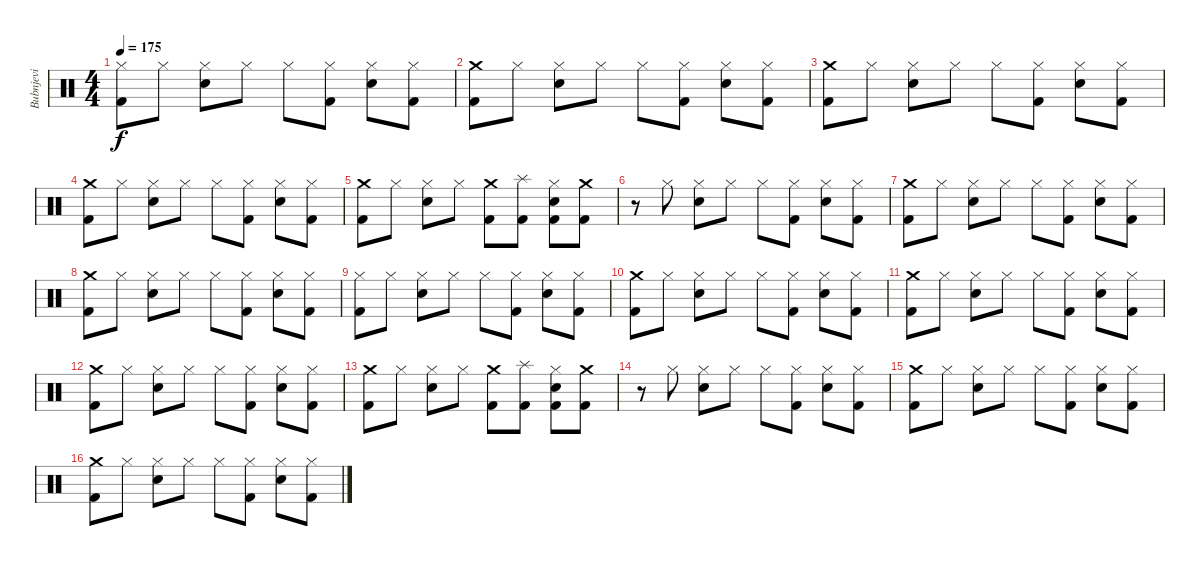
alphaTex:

\track ("Bubnjevi" "Bubnjevi") {instrument percussion}
\staff {score}
\articulation defaults
\ts (4 4)
\tempo 175
\clef neutral
\ks c
("Hi-Hat (closed)" "Kick (hit) 2").8{dy f} "Hi-Hat (closed)".8 ("Electric Snare (hit)" "Hi-Hat (closed)").8 "Hi-Hat (closed)".8 "Hi-Hat (closed)".8 ("Hi-Hat (closed)" "Kick (hit) 2").8 ("Electric Snare (hit)" "Hi-Hat (closed)").8 ("Hi-Hat (closed)" "Kick (hit) 2").8 |
("Crash medium (hit)" "Kick (hit) 2").8 "Hi-Hat (closed)".8 ("Electric Snare (hit)" "Hi-Hat (closed)").8 "Hi-Hat (closed)".8 "Hi-Hat (closed)".8 ("Hi-Hat (closed)" "Kick (hit) 2").8 ("Electric Snare (hit)" "Hi-Hat (closed)").8 ("Hi-Hat (closed)" "Kick (hit) 2").8 |
("Crash medium (hit)" "Kick (hit) 2").8 "Hi-Hat (closed)".8 ("Electric Snare (hit)" "Hi-Hat (closed)").8 "Hi-Hat (closed)".8 "Hi-Hat (closed)".8 ("Hi-Hat (closed)" "Kick (hit) 2").8 ("Electric Snare (hit)" "Hi-Hat (closed)").8 ("Hi-Hat (closed)" "Kick (hit) 2").8 |
("Crash medium (hit)" "Kick (hit) 2").8 "Hi-Hat (closed)".8 ("Electric Snare (hit)" "Hi-Hat (closed)").8 "Hi-Hat (closed)".8 "Hi-Hat (closed)".8 ("Hi-Hat (closed)" "Kick (hit) 2").8 ("Electric Snare (hit)" "Hi-Hat (closed)").8 ("Hi-Hat (closed)" "Kick (hit) 2").8 |
("Crash medium (hit)" "Kick (hit) 2").8 "Hi-Hat (closed)".8 ("Electric Snare (hit)" "Hi-Hat (closed)").8 "Hi-Hat (closed)".8 ("Crash medium (hit)" "Kick (hit) 2").8 ("Splash (hit)" "Kick (hit) 2").8 ("Electric Snare (hit)" "Hi-Hat (closed)" "Kick (hit) 2").8 ("Crash medium (hit)" "Kick (hit) 2").8 |
r.8 "Hi-Hat (closed)".8 ("Electric Snare (hit)" "Hi-Hat (closed)").8 "Hi-Hat (closed)".8 "Hi-Hat (closed)".8 ("Hi-Hat (closed)" "Kick (hit) 2").8 ("Electric Snare (hit)" "Hi-Hat (closed)").8 ("Hi-Hat (closed)" "Kick (hit) 2").8 |
("Crash medium (hit)" "Kick (hit) 2").8 "Hi-Hat (closed)".8 ("Electric Snare (hit)" "Hi-Hat (closed)").8 "Hi-Hat (closed)".8 "Hi-Hat (closed)".8 ("Hi-Hat (closed)" "Kick (hit) 2").8 ("Electric Snare (hit)" "Hi-Hat (closed)").8 ("Hi-Hat (closed)" "Kick (hit) 2").8 |
("Crash medium (hit)" "Kick (hit) 2").8 "Hi-Hat (closed)".8 ("Electric Snare (hit)" "Hi-Hat (closed)").8 "Hi-Hat (closed)".8 "Hi-Hat (closed)".8 ("Hi-Hat (closed)" "Kick (hit) 2").8 ("Electric Snare (hit)" "Hi-Hat (closed)").8 ("Hi-Hat (closed)" "Kick (hit) 2").8 |
("Hi-Hat (closed)" "Kick (hit) 2").8 "Hi-Hat (closed)".8 ("Electric Snare (hit)" "Hi-Hat (closed)").8 "Hi-Hat (closed)".8 "Hi-Hat (closed)".8 ("Hi-Hat (closed)" "Kick (hit) 2").8 ("Electric Snare (hit)" "Hi-Hat (closed)").8 ("Hi-Hat (closed)" "Kick (hit) 2").8 |
("Crash medium (hit)" "Kick (hit) 2").8 "Hi-Hat (closed)".8 ("Electric Snare (hit)" "Hi-Hat (closed)").8 "Hi-Hat (closed)".8 "Hi-Hat (closed)".8 ("Hi-Hat (closed)" "Kick (hit) 2").8 ("Electric Snare (hit)" "Hi-Hat (closed)").8 ("Hi-Hat (closed)" "Kick (hit) 2").8 |
("Crash medium (hit)" "Kick (hit) 2").8 "Hi-Hat (closed)".8 ("Electric Snare (hit)" "Hi-Hat (closed)").8 "Hi-Hat (closed)".8 "Hi-Hat (closed)".8 ("Hi-Hat (closed)" "Kick (hit) 2").8 ("Electric Snare (hit)" "Hi-Hat (closed)").8 ("Hi-Hat (closed)" "Kick (hit) 2").8 |
("Crash medium (hit)" "Kick (hit) 2").8 "Hi-Hat (closed)".8 ("Electric Snare (hit)" "Hi-Hat (closed)").8 "Hi-Hat (closed)".8 "Hi-Hat (closed)".8 ("Hi-Hat (closed)" "Kick (hit) 2").8 ("Electric Snare (hit)" "Hi-Hat (closed)").8 ("Hi-Hat (closed)" "Kick (hit) 2").8 |
("Crash medium (hit)" "Kick (hit) 2").8 "Hi-Hat (closed)".8 ("Electric Snare (hit)" "Hi-Hat (closed)").8 "Hi-Hat (closed)".8 ("Crash medium (hit)" "Kick (hit) 2").8 ("Splash (hit)" "Kick (hit) 2").8 ("Electric Snare (hit)" "Hi-Hat (closed)" "Kick (hit) 2").8 ("Crash medium (hit)" "Kick (hit) 2").8 |
r.8 "Hi-Hat (closed)".8 ("Electric Snare (hit)" "Hi-Hat (closed)").8 "Hi-Hat (closed)".8 "Hi-Hat (closed)".8 ("Hi-Hat (closed)" "Kick (hit) 2").8 ("Electric Snare (hit)" "Hi-Hat (closed)").8 ("Hi-Hat (closed)" "Kick (hit) 2").8 |
("Crash medium (hit)" "Kick (hit) 2").8 "Hi-Hat (closed)".8 ("Electric Snare (hit)" "Hi-Hat (closed)").8 "Hi-Hat (closed)".8 "Hi-Hat (closed)".8 ("Hi-Hat (closed)" "Kick (hit) 2").8 ("Electric Snare (hit)" "Hi-Hat (closed)").8 ("Hi-Hat (closed)" "Kick (hit) 2").8 |
("Crash medium (hit)" "Kick (hit) 2").8 "Hi-Hat (closed)".8 ("Electric Snare (hit)" "Hi-Hat (closed)").8 "Hi-Hat (closed)".8 "Hi-Hat (closed)".8 ("Hi-Hat (closed)" "Kick (hit) 2").8 ("Electric Snare (hit)" "Hi-Hat (closed)").8 ("Hi-Hat (closed)" "Kick (hit) 2").8
